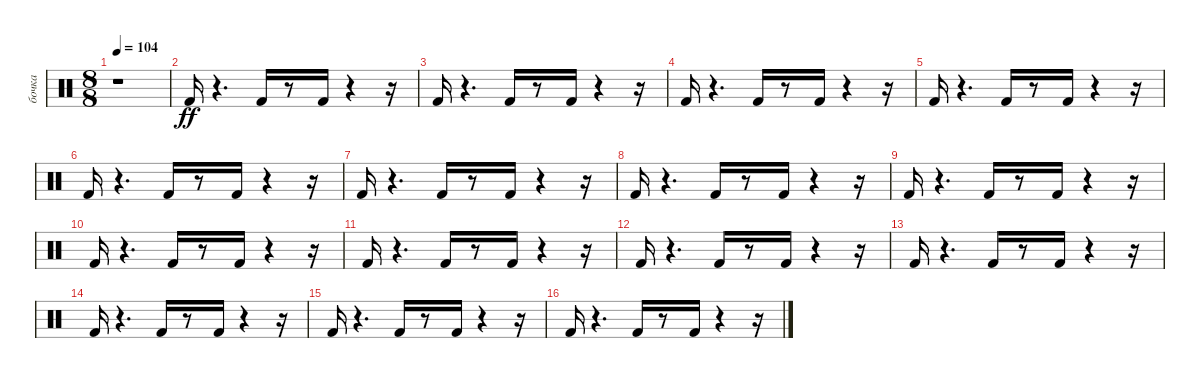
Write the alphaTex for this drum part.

\track ("бочка" "бочка") {instrument percussion}
\staff {score}
\articulation defaults
\ts (8 8)
\tempo 104
\clef neutral
\ks c
r.1{dy ff} |
"Kick (hit) 2".16 r.4{d} "Kick (hit) 2".16 r.8 "Kick (hit) 2".16 r.4 r.16 |
"Kick (hit) 2".16 r.4{d} "Kick (hit) 2".16 r.8 "Kick (hit) 2".16 r.4 r.16 |
"Kick (hit) 2".16 r.4{d} "Kick (hit) 2".16 r.8 "Kick (hit) 2".16 r.4 r.16 |
"Kick (hit) 2".16 r.4{d} "Kick (hit) 2".16 r.8 "Kick (hit) 2".16 r.4 r.16 |
"Kick (hit) 2".16 r.4{d} "Kick (hit) 2".16 r.8 "Kick (hit) 2".16 r.4 r.16 |
"Kick (hit) 2".16 r.4{d} "Kick (hit) 2".16 r.8 "Kick (hit) 2".16 r.4 r.16 |
"Kick (hit) 2".16 r.4{d} "Kick (hit) 2".16 r.8 "Kick (hit) 2".16 r.4 r.16 |
"Kick (hit) 2".16 r.4{d} "Kick (hit) 2".16 r.8 "Kick (hit) 2".16 r.4 r.16 |
"Kick (hit) 2".16 r.4{d} "Kick (hit) 2".16 r.8 "Kick (hit) 2".16 r.4 r.16 |
"Kick (hit) 2".16 r.4{d} "Kick (hit) 2".16 r.8 "Kick (hit) 2".16 r.4 r.16 |
"Kick (hit) 2".16 r.4{d} "Kick (hit) 2".16 r.8 "Kick (hit) 2".16 r.4 r.16 |
"Kick (hit) 2".16 r.4{d} "Kick (hit) 2".16 r.8 "Kick (hit) 2".16 r.4 r.16 |
"Kick (hit) 2".16 r.4{d} "Kick (hit) 2".16 r.8 "Kick (hit) 2".16 r.4 r.16 |
"Kick (hit) 2".16 r.4{d} "Kick (hit) 2".16 r.8 "Kick (hit) 2".16 r.4 r.16 |
"Kick (hit) 2".16 r.4{d} "Kick (hit) 2".16 r.8 "Kick (hit) 2".16 r.4 r.16
